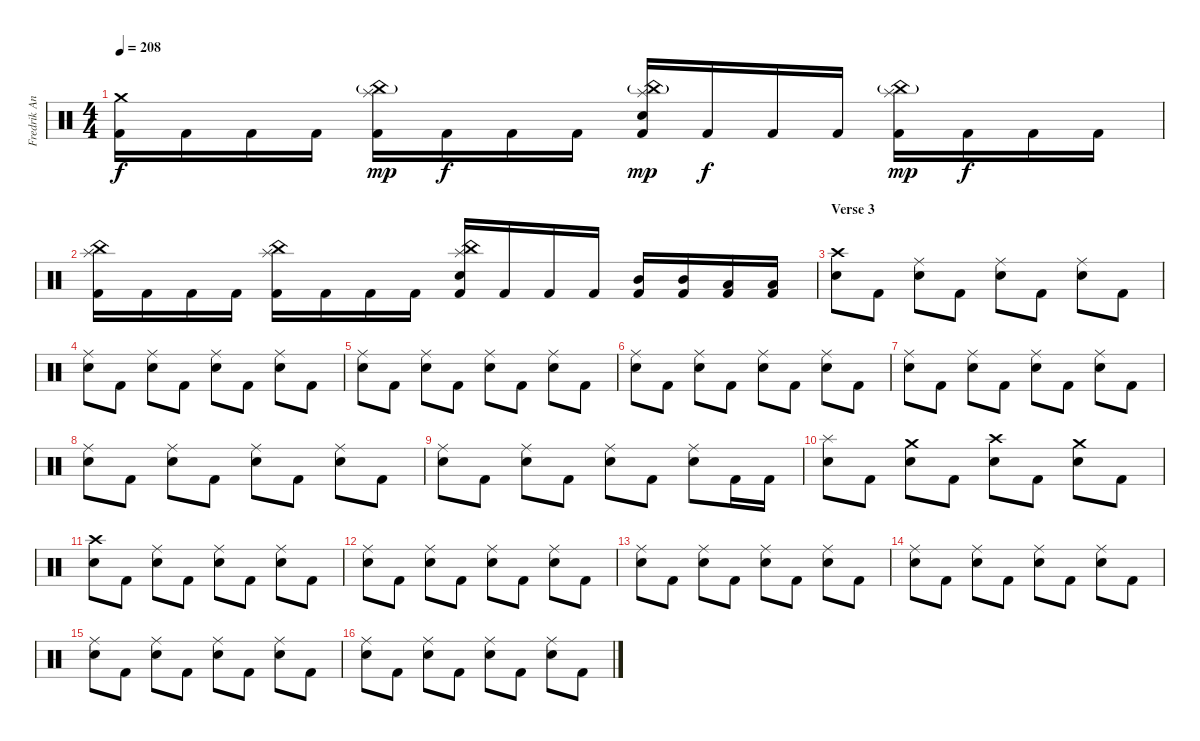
\track ("Fredrik Andersson" "Fredrik An") {instrument percussion}
\staff {score}
\articulation defaults
\ts (4 4)
\tempo 208
\clef neutral
\ks c
("Crash medium (hit)" "Kick (hit) 2").16{dy f} "Kick (hit) 2".16 "Kick (hit) 2".16 "Kick (hit) 2".16 ("Splash (hit)" "China (hit)"{g} "Kick (hit) 2").16{dy mp} "Kick (hit) 2".16{dy f} "Kick (hit) 2".16 "Kick (hit) 2".16 ("Splash (hit)" "Electric Snare (hit)" "China (hit)"{g} "Kick (hit) 2").16{dy mp} "Kick (hit) 2".16{dy f} "Kick (hit) 2".16 "Kick (hit) 2".16 ("Splash (hit)" "China (hit)"{g} "Kick (hit) 2").16{dy mp} "Kick (hit) 2".16{dy f} "Kick (hit) 2".16 "Kick (hit) 2".16 |
("Splash (hit)" "China (hit)" "Kick (hit) 2").16 "Kick (hit) 2".16 "Kick (hit) 2".16 "Kick (hit) 2".16 ("Splash (hit)" "China (hit)" "Kick (hit) 2").16 "Kick (hit) 2".16 "Kick (hit) 2".16 "Kick (hit) 2".16 ("Splash (hit)" "Electric Snare (hit)" "China (hit)" "Kick (hit) 2").16 "Kick (hit) 2".16 "Kick (hit) 2".16 "Kick (hit) 2".16 ("Mid Tom (hit)" "Kick (hit) 2").16 ("Mid Tom (hit)" "Kick (hit) 2").16 ("Low Tom (hit)" "Kick (hit) 2").16 ("Low Tom (hit)" "Kick (hit) 2").16 |
\section ("" "Verse 3")
("Crash high (hit)" "Electric Snare (hit)").8 "Kick (hit) 2".8 ("Ride (middle)" "Electric Snare (hit)").8 "Kick (hit) 2".8 ("Ride (middle)" "Electric Snare (hit)").8 "Kick (hit) 2".8 ("Ride (middle)" "Electric Snare (hit)").8 "Kick (hit) 2".8 |
("Ride (middle)" "Electric Snare (hit)").8 "Kick (hit) 2".8 ("Ride (middle)" "Electric Snare (hit)").8 "Kick (hit) 2".8 ("Ride (middle)" "Electric Snare (hit)").8 "Kick (hit) 2".8 ("Ride (middle)" "Electric Snare (hit)").8 "Kick (hit) 2".8 |
("Ride (middle)" "Electric Snare (hit)").8 "Kick (hit) 2".8 ("Ride (middle)" "Electric Snare (hit)").8 "Kick (hit) 2".8 ("Ride (middle)" "Electric Snare (hit)").8 "Kick (hit) 2".8 ("Ride (middle)" "Electric Snare (hit)").8 "Kick (hit) 2".8 |
("Ride (middle)" "Electric Snare (hit)").8 "Kick (hit) 2".8 ("Ride (middle)" "Electric Snare (hit)").8 "Kick (hit) 2".8 ("Ride (middle)" "Electric Snare (hit)").8 "Kick (hit) 2".8 ("Ride (middle)" "Electric Snare (hit)").8 "Kick (hit) 2".8 |
("Ride (middle)" "Electric Snare (hit)").8 "Kick (hit) 2".8 ("Ride (middle)" "Electric Snare (hit)").8 "Kick (hit) 2".8 ("Ride (middle)" "Electric Snare (hit)").8 "Kick (hit) 2".8 ("Ride (middle)" "Electric Snare (hit)").8 "Kick (hit) 2".8 |
("Ride (middle)" "Electric Snare (hit)").8 "Kick (hit) 2".8 ("Ride (middle)" "Electric Snare (hit)").8 "Kick (hit) 2".8 ("Ride (middle)" "Electric Snare (hit)").8 "Kick (hit) 2".8 ("Ride (middle)" "Electric Snare (hit)").8 "Kick (hit) 2".8 |
("Ride (middle)" "Electric Snare (hit)").8 "Kick (hit) 2".8 ("Ride (middle)" "Electric Snare (hit)").8 "Kick (hit) 2".8 ("Ride (middle)" "Electric Snare (hit)").8 "Kick (hit) 2".8 ("Ride (middle)" "Electric Snare (hit)").8 "Kick (hit) 2".16 "Kick (hit) 2".16 |
("Splash (hit)" "Electric Snare (hit)").8 "Kick (hit) 2".8 ("Crash medium (hit)" "Electric Snare (hit)").8 "Kick (hit) 2".8 ("Crash high (hit)" "Electric Snare (hit)").8 "Kick (hit) 2".8 ("Crash medium (hit)" "Electric Snare (hit)").8 "Kick (hit) 2".8 |
\section ("" "")
("Crash high (hit)" "Electric Snare (hit)").8 "Kick (hit) 2".8 ("Ride (middle)" "Electric Snare (hit)").8 "Kick (hit) 2".8 ("Ride (middle)" "Electric Snare (hit)").8 "Kick (hit) 2".8 ("Ride (middle)" "Electric Snare (hit)").8 "Kick (hit) 2".8 |
("Ride (middle)" "Electric Snare (hit)").8 "Kick (hit) 2".8 ("Ride (middle)" "Electric Snare (hit)").8 "Kick (hit) 2".8 ("Ride (middle)" "Electric Snare (hit)").8 "Kick (hit) 2".8 ("Ride (middle)" "Electric Snare (hit)").8 "Kick (hit) 2".8 |
("Ride (middle)" "Electric Snare (hit)").8 "Kick (hit) 2".8 ("Ride (middle)" "Electric Snare (hit)").8 "Kick (hit) 2".8 ("Ride (middle)" "Electric Snare (hit)").8 "Kick (hit) 2".8 ("Ride (middle)" "Electric Snare (hit)").8 "Kick (hit) 2".8 |
("Ride (middle)" "Electric Snare (hit)").8 "Kick (hit) 2".8 ("Ride (middle)" "Electric Snare (hit)").8 "Kick (hit) 2".8 ("Ride (middle)" "Electric Snare (hit)").8 "Kick (hit) 2".8 ("Ride (middle)" "Electric Snare (hit)").8 "Kick (hit) 2".8 |
("Ride (middle)" "Electric Snare (hit)").8 "Kick (hit) 2".8 ("Ride (middle)" "Electric Snare (hit)").8 "Kick (hit) 2".8 ("Ride (middle)" "Electric Snare (hit)").8 "Kick (hit) 2".8 ("Ride (middle)" "Electric Snare (hit)").8 "Kick (hit) 2".8 |
("Ride (middle)" "Electric Snare (hit)").8 "Kick (hit) 2".8 ("Ride (middle)" "Electric Snare (hit)").8 "Kick (hit) 2".8 ("Ride (middle)" "Electric Snare (hit)").8 "Kick (hit) 2".8 ("Ride (middle)" "Electric Snare (hit)").8 "Kick (hit) 2".8
